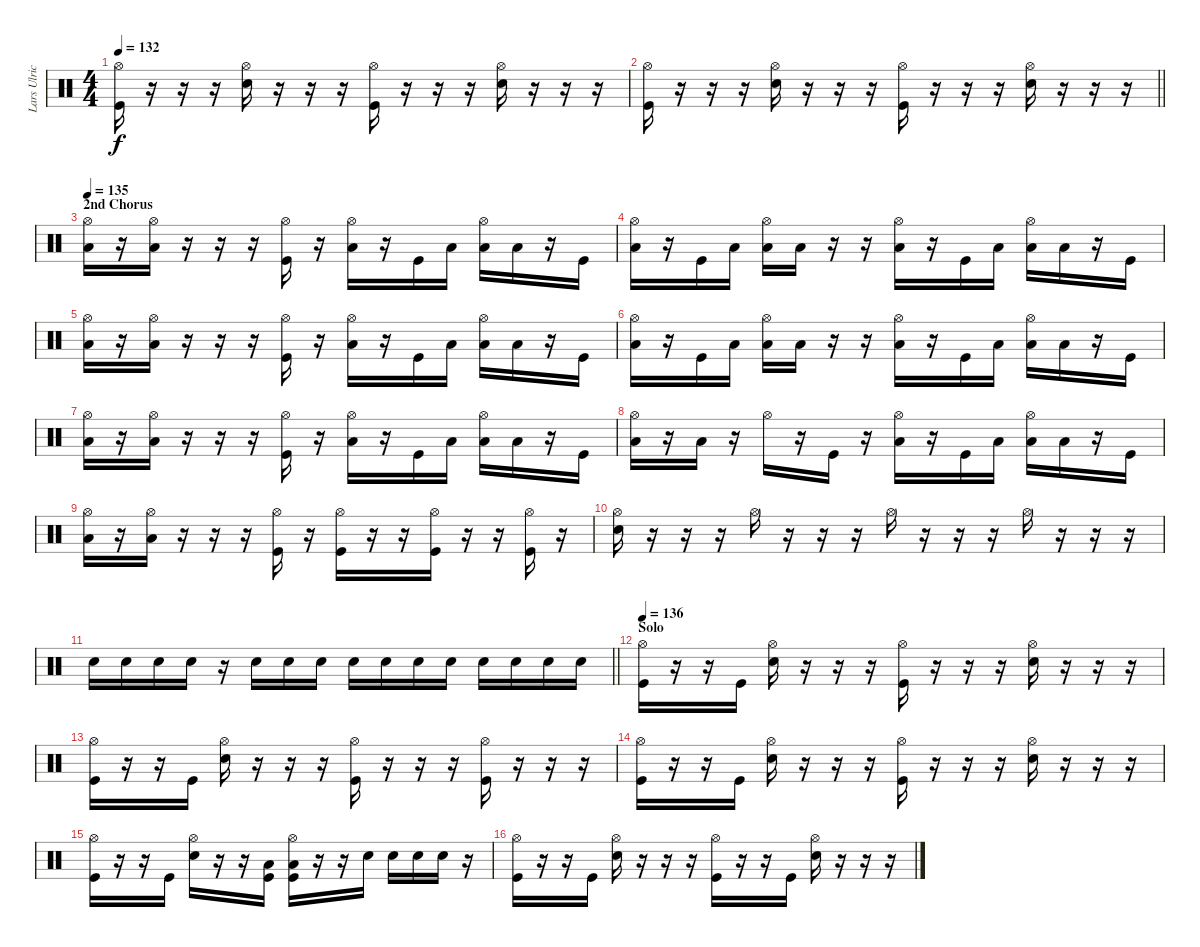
\track ("Lars Ulrich" "Lars Ulric") {instrument percussion}
\staff {score}
\articulation defaults
\ts (4 4)
\tempo 132
\clef neutral
\ks c
("Hi-Hat (open)" "Kick (hit)").16{dy f} r.16 r.16 r.16 ("Hi-Hat (open)" "Snare (hit) 2").16 r.16 r.16 r.16 ("Hi-Hat (open)" "Kick (hit)").16 r.16 r.16 r.16 ("Hi-Hat (open)" "Snare (hit) 2").16 r.16 r.16 r.16 |
\barLineRight lightlight
("Hi-Hat (open)" "Kick (hit)").16 r.16 r.16 r.16 ("Hi-Hat (open)" "Snare (hit) 2").16 r.16 r.16 r.16 ("Hi-Hat (open)" "Kick (hit)").16 r.16 r.16 r.16 ("Hi-Hat (open)" "Snare (hit) 2").16 r.16 r.16 r.16 |
\section ("" "2nd Chorus")
\tempo 135
("Hi-Hat (open)" "Low Floor Tom (hit)").16 r.16 ("Hi-Hat (open)" "Low Floor Tom (hit)").16 r.16 r.16 r.16 ("Hi-Hat (open)" "Kick (hit)").16 r.16 ("Hi-Hat (open)" "Low Floor Tom (hit)").16 r.16 "Kick (hit)".16 "Low Floor Tom (hit)".16 ("Hi-Hat (open)" "Low Floor Tom (hit)").16 "Low Floor Tom (hit)".16 r.16 "Kick (hit)".16 |
("Hi-Hat (open)" "Low Floor Tom (hit)").16 r.16 "Kick (hit)".16 "Low Floor Tom (hit)".16 ("Hi-Hat (open)" "Low Floor Tom (hit)").16 "Low Floor Tom (hit)".16 r.16 r.16 ("Hi-Hat (open)" "Low Floor Tom (hit)").16 r.16 "Kick (hit)".16 "Low Floor Tom (hit)".16 ("Hi-Hat (open)" "Low Floor Tom (hit)").16 "Low Floor Tom (hit)".16 r.16 "Kick (hit)".16 |
("Hi-Hat (open)" "Low Floor Tom (hit)").16 r.16 ("Hi-Hat (open)" "Low Floor Tom (hit)").16 r.16 r.16 r.16 ("Hi-Hat (open)" "Kick (hit)").16 r.16 ("Hi-Hat (open)" "Low Floor Tom (hit)").16 r.16 "Kick (hit)".16 "Low Floor Tom (hit)".16 ("Hi-Hat (open)" "Low Floor Tom (hit)").16 "Low Floor Tom (hit)".16 r.16 "Kick (hit)".16 |
("Hi-Hat (open)" "Low Floor Tom (hit)").16 r.16 "Kick (hit)".16 "Low Floor Tom (hit)".16 ("Hi-Hat (open)" "Low Floor Tom (hit)").16 "Low Floor Tom (hit)".16 r.16 r.16 ("Hi-Hat (open)" "Low Floor Tom (hit)").16 r.16 "Kick (hit)".16 "Low Floor Tom (hit)".16 ("Hi-Hat (open)" "Low Floor Tom (hit)").16 "Low Floor Tom (hit)".16 r.16 "Kick (hit)".16 |
("Hi-Hat (open)" "Low Floor Tom (hit)").16 r.16 ("Hi-Hat (open)" "Low Floor Tom (hit)").16 r.16 r.16 r.16 ("Hi-Hat (open)" "Kick (hit)").16 r.16 ("Hi-Hat (open)" "Low Floor Tom (hit)").16 r.16 "Kick (hit)".16 "Low Floor Tom (hit)".16 ("Hi-Hat (open)" "Low Floor Tom (hit)").16 "Low Floor Tom (hit)".16 r.16 "Kick (hit)".16 |
("Hi-Hat (open)" "Low Floor Tom (hit)").16 r.16 "Low Floor Tom (hit)".16 r.16 "Hi-Hat (open)".16 r.16 "Kick (hit)".16 r.16 ("Hi-Hat (open)" "Low Floor Tom (hit)").16 r.16 "Kick (hit)".16 "Low Floor Tom (hit)".16 ("Hi-Hat (open)" "Low Floor Tom (hit)").16 "Low Floor Tom (hit)".16 r.16 "Kick (hit)".16 |
("Hi-Hat (open)" "Low Floor Tom (hit)").16 r.16 ("Hi-Hat (open)" "Low Floor Tom (hit)").16 r.16 r.16 r.16 ("Hi-Hat (open)" "Kick (hit)").16 r.16 ("Hi-Hat (open)" "Kick (hit)").16 r.16 r.16 ("Hi-Hat (open)" "Kick (hit)").16 r.16 r.16 ("Hi-Hat (open)" "Kick (hit)").16 r.16 |
("Hi-Hat (open)" "Snare (hit) 2").16 r.16 r.16 r.16 "Hi-Hat (open)".16 r.16 r.16 r.16 "Hi-Hat (open)".16 r.16 r.16 r.16 "Hi-Hat (open)".16 r.16 r.16 r.16 |
\barLineRight lightlight "Snare (hit) 2".16 "Snare (hit) 2".16 "Snare (hit) 2".16 "Snare (hit) 2".16
r.16 "Snare (hit) 2".16 "Snare (hit) 2".16 "Snare (hit) 2".16 "Snare (hit) 2".16 "Snare (hit) 2".16 "Snare (hit) 2".16 "Snare (hit) 2".16 "Snare (hit) 2".16 "Snare (hit) 2".16 "Snare (hit) 2".16 "Snare (hit) 2".16 |
\section ("" "Solo")
\tempo 136
("Hi-Hat (open)" "Kick (hit)").16 r.16 r.16 "Kick (hit)".16 ("Hi-Hat (open)" "Snare (hit) 2").16 r.16 r.16 r.16 ("Hi-Hat (open)" "Kick (hit)").16 r.16 r.16 r.16 ("Hi-Hat (open)" "Snare (hit) 2").16 r.16 r.16 r.16 |
("Hi-Hat (open)" "Kick (hit)").16 r.16 r.16 "Kick (hit)".16 ("Hi-Hat (open)" "Snare (hit) 2").16 r.16 r.16 r.16 ("Hi-Hat (open)" "Kick (hit)").16 r.16 r.16 r.16 ("Hi-Hat (open)" "Kick (hit)").16 r.16 r.16 r.16 |
("Hi-Hat (open)" "Kick (hit)").16 r.16 r.16 "Kick (hit)".16 ("Hi-Hat (open)" "Snare (hit) 2").16 r.16 r.16 r.16 ("Hi-Hat (open)" "Kick (hit)").16 r.16 r.16 r.16 ("Hi-Hat (open)" "Snare (hit) 2").16 r.16 r.16 r.16 |
("Hi-Hat (open)" "Kick (hit)").16 r.16 r.16 "Kick (hit)".16 ("Hi-Hat (open)" "Snare (hit) 2").16 r.16 r.16 ("Kick (hit)" "Low Floor Tom (hit)").16 ("Hi-Hat (open)" "Kick (hit)" "Low Floor Tom (hit)").16 r.16 r.16 "Snare (hit) 2".16 "Snare (hit) 2".16 "Snare (hit) 2".16 "Snare (hit) 2".16 r.16 |
("Hi-Hat (open)" "Kick (hit)").16 r.16 r.16 "Kick (hit)".16 ("Hi-Hat (open)" "Snare (hit) 2").16 r.16 r.16 r.16 ("Hi-Hat (open)" "Kick (hit)").16 r.16 r.16 "Kick (hit)".16 ("Hi-Hat (open)" "Snare (hit) 2").16 r.16 r.16 r.16
